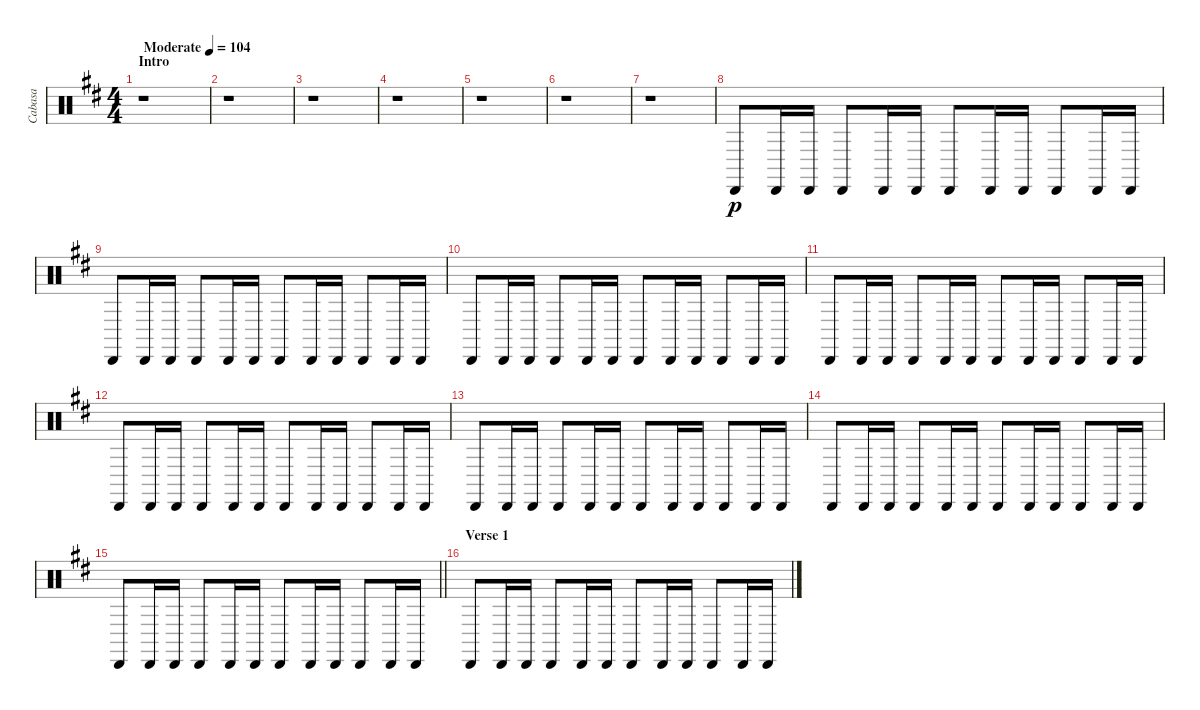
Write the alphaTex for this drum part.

\track ("Cabasa" "Cabasa") {instrument percussion}
\staff {score}
\articulation defaults
\ts (4 4)
\section ("" "Intro")
\tempo (104 "Moderate")
\clef neutral
\ks bminor
r.1{dy p} |
r.1 |
r.1 |
r.1 |
r.1 |
r.1 |
r.1 |
"Cabasa (hit)".8 "Cabasa (hit)".16 "Cabasa (hit)".16 "Cabasa (hit)".8 "Cabasa (hit)".16 "Cabasa (hit)".16 "Cabasa (hit)".8 "Cabasa (hit)".16 "Cabasa (hit)".16 "Cabasa (hit)".8 "Cabasa (hit)".16 "Cabasa (hit)".16 |
"Cabasa (hit)".8 "Cabasa (hit)".16 "Cabasa (hit)".16 "Cabasa (hit)".8 "Cabasa (hit)".16 "Cabasa (hit)".16 "Cabasa (hit)".8 "Cabasa (hit)".16 "Cabasa (hit)".16 "Cabasa (hit)".8 "Cabasa (hit)".16 "Cabasa (hit)".16 |
"Cabasa (hit)".8 "Cabasa (hit)".16 "Cabasa (hit)".16 "Cabasa (hit)".8 "Cabasa (hit)".16 "Cabasa (hit)".16 "Cabasa (hit)".8 "Cabasa (hit)".16 "Cabasa (hit)".16 "Cabasa (hit)".8 "Cabasa (hit)".16 "Cabasa (hit)".16 |
"Cabasa (hit)".8 "Cabasa (hit)".16 "Cabasa (hit)".16 "Cabasa (hit)".8 "Cabasa (hit)".16 "Cabasa (hit)".16 "Cabasa (hit)".8 "Cabasa (hit)".16 "Cabasa (hit)".16 "Cabasa (hit)".8 "Cabasa (hit)".16 "Cabasa (hit)".16 |
"Cabasa (hit)".8 "Cabasa (hit)".16 "Cabasa (hit)".16 "Cabasa (hit)".8 "Cabasa (hit)".16 "Cabasa (hit)".16 "Cabasa (hit)".8 "Cabasa (hit)".16 "Cabasa (hit)".16 "Cabasa (hit)".8 "Cabasa (hit)".16 "Cabasa (hit)".16 |
"Cabasa (hit)".8 "Cabasa (hit)".16 "Cabasa (hit)".16 "Cabasa (hit)".8 "Cabasa (hit)".16 "Cabasa (hit)".16 "Cabasa (hit)".8 "Cabasa (hit)".16 "Cabasa (hit)".16 "Cabasa (hit)".8 "Cabasa (hit)".16 "Cabasa (hit)".16 |
"Cabasa (hit)".8 "Cabasa (hit)".16 "Cabasa (hit)".16 "Cabasa (hit)".8 "Cabasa (hit)".16 "Cabasa (hit)".16 "Cabasa (hit)".8 "Cabasa (hit)".16 "Cabasa (hit)".16 "Cabasa (hit)".8 "Cabasa (hit)".16 "Cabasa (hit)".16 |
\barLineRight lightlight "Cabasa (hit)".8 "Cabasa (hit)".16 "Cabasa (hit)".16 "Cabasa (hit)".8 "Cabasa (hit)".16 "Cabasa (hit)".16 "Cabasa (hit)".8 "Cabasa (hit)".16 "Cabasa (hit)".16 "Cabasa (hit)".8 "Cabasa (hit)".16 "Cabasa (hit)".16
|
\section ("" "Verse 1")
"Cabasa (hit)".8 "Cabasa (hit)".16 "Cabasa (hit)".16 "Cabasa (hit)".8 "Cabasa (hit)".16 "Cabasa (hit)".16 "Cabasa (hit)".8 "Cabasa (hit)".16 "Cabasa (hit)".16 "Cabasa (hit)".8 "Cabasa (hit)".16 "Cabasa (hit)".16
